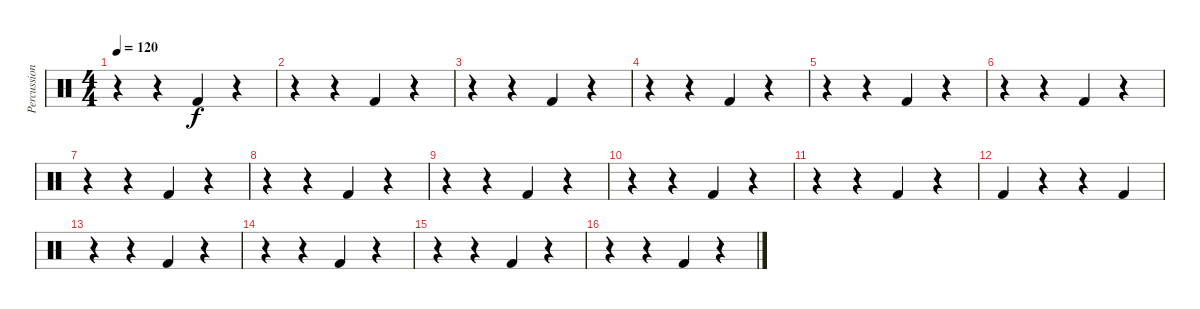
\track ("Percussion II" "Percussion") {instrument percussion}
\staff {score}
\articulation defaults
\ts (4 4)
\tempo 120
\clef neutral
\ks aminor
r.4{dy f} r.4 "Kick (hit) 2".4 r.4 |
r.4 r.4 "Kick (hit) 2".4 r.4 |
r.4 r.4 "Kick (hit) 2".4 r.4 |
r.4 r.4 "Kick (hit) 2".4 r.4 |
r.4 r.4 "Kick (hit) 2".4 r.4 |
r.4 r.4 "Kick (hit) 2".4 r.4 |
r.4 r.4 "Kick (hit) 2".4 r.4 |
r.4 r.4 "Kick (hit) 2".4 r.4 |
r.4 r.4 "Kick (hit) 2".4 r.4 |
r.4 r.4 "Kick (hit) 2".4 r.4 |
r.4 r.4 "Kick (hit) 2".4 r.4 |
"Kick (hit) 2".4 r.4 r.4 "Kick (hit) 2".4 |
r.4 r.4 "Kick (hit) 2".4 r.4 |
r.4 r.4 "Kick (hit) 2".4 r.4 |
r.4 r.4 "Kick (hit) 2".4 r.4 |
r.4 r.4 "Kick (hit) 2".4 r.4
